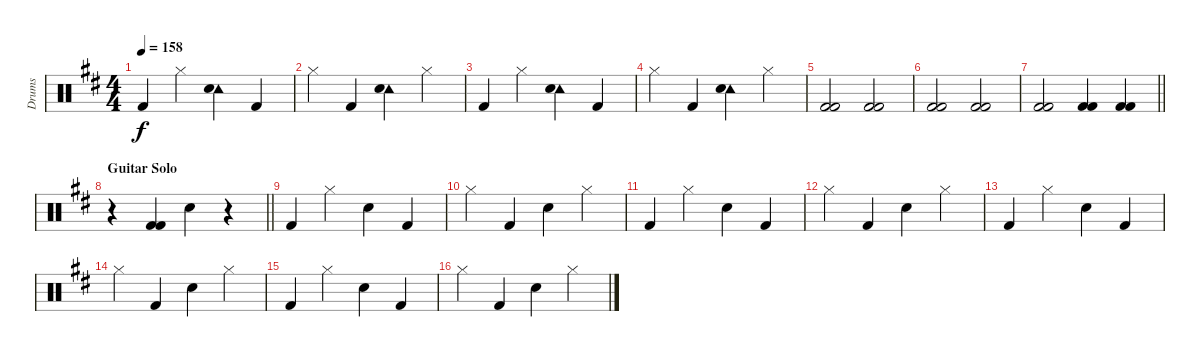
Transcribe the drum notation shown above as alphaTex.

\track ("Drums" "Drums") {instrument percussion}
\staff {score}
\articulation defaults
\ts (4 4)
\tempo 158
\clef neutral
\ks d "Kick (hit) 2".4{dy f} "Hi-Hat (closed)".4
("Tambourine (hit)" "Snare (hit) 2").4 "Kick (hit) 2".4 |
"Hi-Hat (closed)".4 "Kick (hit) 2".4 ("Tambourine (hit)" "Snare (hit) 2").4 "Hi-Hat (closed)".4 |
"Kick (hit) 2".4 "Hi-Hat (closed)".4 ("Tambourine (hit)" "Snare (hit) 2").4 "Kick (hit) 2".4 |
"Hi-Hat (closed)".4 "Kick (hit) 2".4 ("Tambourine (hit)" "Snare (hit) 2").4 "Hi-Hat (closed)".4 |
("Kick (hit) 2" "Kick (hit) 2").2 ("Kick (hit) 2" "Kick (hit) 2").2 |
("Kick (hit) 2" "Kick (hit) 2").2 ("Kick (hit) 2" "Kick (hit) 2").2 |
\barLineRight lightlight
("Kick (hit) 2" "Kick (hit) 2").2 ("Kick (hit) 2" "Kick (hit) 2").4 ("Kick (hit) 2" "Kick (hit) 2").4 |
\section ("" "Guitar Solo")
\barLineRight lightlight
r.4 ("Kick (hit) 2" "Kick (hit) 2").4 "Snare (hit) 2".4 r.4 |
"Kick (hit) 2".4 "Hi-Hat (closed)".4 "Snare (hit) 2".4 "Kick (hit) 2".4 |
"Hi-Hat (closed)".4 "Kick (hit) 2".4 "Snare (hit) 2".4 "Hi-Hat (closed)".4 |
"Kick (hit) 2".4 "Hi-Hat (closed)".4 "Snare (hit) 2".4 "Kick (hit) 2".4 |
"Hi-Hat (closed)".4 "Kick (hit) 2".4 "Snare (hit) 2".4 "Hi-Hat (closed)".4 |
"Kick (hit) 2".4 "Hi-Hat (closed)".4 "Snare (hit) 2".4 "Kick (hit) 2".4 |
"Hi-Hat (closed)".4 "Kick (hit) 2".4 "Snare (hit) 2".4 "Hi-Hat (closed)".4 |
"Kick (hit) 2".4 "Hi-Hat (closed)".4 "Snare (hit) 2".4 "Kick (hit) 2".4 |
"Hi-Hat (closed)".4 "Kick (hit) 2".4 "Snare (hit) 2".4 "Hi-Hat (closed)".4
